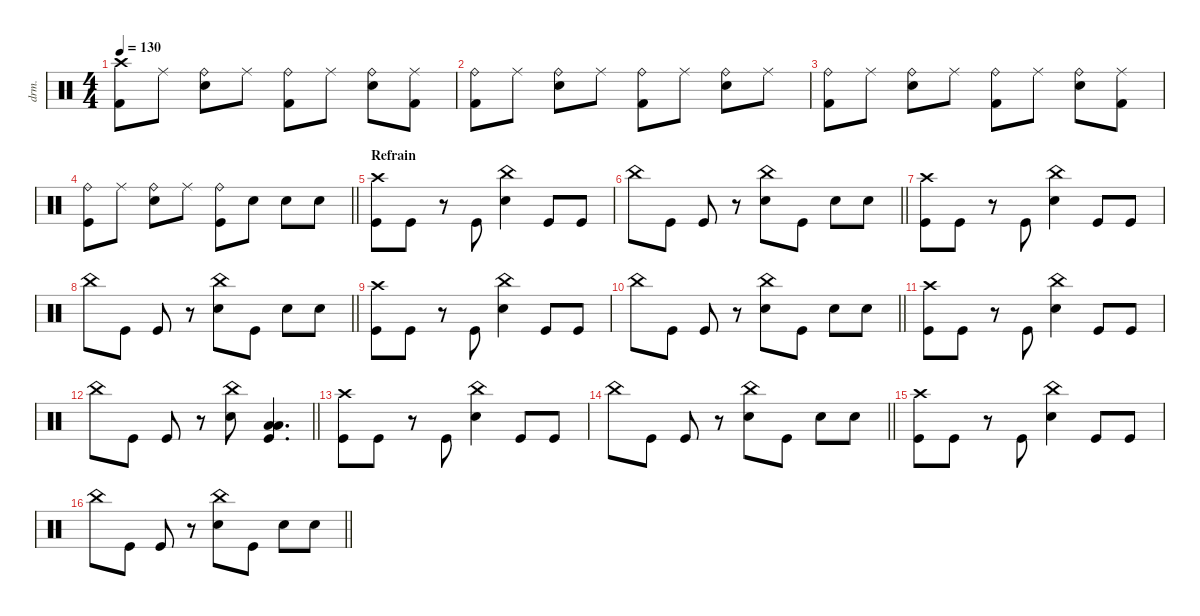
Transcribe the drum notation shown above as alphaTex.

\defaultSystemsLayout 4
\hideDynamics
\bracketExtendMode nobrackets
\track ("Manouche" "drm.") {solo instrument percussion}
\staff {score}
\articulation defaults
\ts (4 4)
\tempo 130
\clef neutral
\ks c
("Crash high (hit)" "Kick (hit) 2").8{dy f beam Down} "Ride (middle)".8{dy mf beam Down} ("Ride (bell)" "Snare (hit) 2").8{dy f beam Down} "Ride (middle)".8{dy mf beam Down} ("Ride (bell)" "Kick (hit) 2").8{dy f beam Down} "Ride (middle)".8{dy mf beam Down} ("Ride (bell)" "Snare (hit) 2").8{dy f beam Down} ("Ride (middle)" "Kick (hit) 2").8{dy mf beam Down} |
("Ride (bell)" "Kick (hit) 2").8{dy f beam Down} "Ride (middle)".8{dy mf beam Down} ("Ride (bell)" "Snare (hit) 2").8{dy f beam Down} "Ride (middle)".8{dy mf beam Down} ("Ride (bell)" "Kick (hit) 2").8{dy f beam Down} "Ride (middle)".8{dy mf beam Down} ("Ride (bell)" "Snare (hit) 2").8{dy f beam Down} "Ride (middle)".8{dy mf beam Down} |
("Ride (bell)" "Kick (hit) 2").8{dy f beam Down} "Ride (middle)".8{dy mf beam Down} ("Ride (bell)" "Snare (hit) 2").8{dy f beam Down} "Ride (middle)".8{dy mf beam Down} ("Ride (bell)" "Kick (hit) 2").8{dy f beam Down} "Ride (middle)".8{dy mf beam Down} ("Ride (bell)" "Snare (hit) 2").8{dy f beam Down} ("Ride (middle)" "Kick (hit) 2").8{dy mf beam Down} |
\barLineRight lightlight
("Ride (bell)" "Kick (hit)").8{dy f beam Down} "Ride (middle)".8{dy mf beam Down} ("Ride (bell)" "Snare (hit) 2").8{dy f beam Down} "Ride (middle)".8{dy mf beam Down} ("Ride (bell)" "Kick (hit)").8{dy f beam Down} "Snare (hit) 2".8{beam Down} "Snare (hit) 2".8{beam Down} "Snare (hit) 2".8{beam Down} |
\section ("" "Refrain")
("Crash high (hit)" "Kick (hit)").8{beam Down} "Kick (hit)".8{beam Down} r.8{beam Down} "Kick (hit)".8{beam Up} ("China (hit)" "Snare (hit) 2").4{beam Down} "Kick (hit)".8{beam Up} "Kick (hit)".8{beam Up} |
\barLineRight lightlight "China (hit)".8{beam Down} "Kick (hit)".8{beam Down} "Kick (hit)".8{beam Up}
r.8{beam Down} ("China (hit)" "Snare (hit) 2").8{beam Down} "Kick (hit)".8{beam Down} "Snare (hit) 2".8{beam Down} "Snare (hit) 2".8{beam Down} |
("Crash high (hit)" "Kick (hit)").8{beam Down} "Kick (hit)".8{beam Down} r.8{beam Down} "Kick (hit)".8{beam Up} ("China (hit)" "Snare (hit) 2").4{beam Down} "Kick (hit)".8{beam Up} "Kick (hit)".8{beam Up} |
\barLineRight lightlight "China (hit)".8{beam Down} "Kick (hit)".8{beam Down} "Kick (hit)".8{beam Up}
r.8{beam Down} ("China (hit)" "Snare (hit) 2").8{beam Down} "Kick (hit)".8{beam Down} "Snare (hit) 2".8{beam Down} "Snare (hit) 2".8{beam Down} |
("Crash high (hit)" "Kick (hit)").8{beam Down} "Kick (hit)".8{beam Down} r.8{beam Down} "Kick (hit)".8{beam Up} ("China (hit)" "Snare (hit) 2").4{beam Down} "Kick (hit)".8{beam Up} "Kick (hit)".8{beam Up} |
\barLineRight lightlight "China (hit)".8{beam Down} "Kick (hit)".8{beam Down} "Kick (hit)".8{beam Up}
r.8{beam Down} ("China (hit)" "Snare (hit) 2").8{beam Down} "Kick (hit)".8{beam Down} "Snare (hit) 2".8{beam Down} "Snare (hit) 2".8{beam Down} |
("Crash high (hit)" "Kick (hit)").8{beam Down} "Kick (hit)".8{beam Down} r.8{beam Down} "Kick (hit)".8{beam Up} ("China (hit)" "Snare (hit) 2").4{beam Down} "Kick (hit)".8{beam Up} "Kick (hit)".8{beam Up} |
\barLineRight lightlight "China (hit)".8{beam Down} "Kick (hit)".8{beam Down} "Kick (hit)".8{beam Up}
r.8{beam Down} ("China (hit)" "Snare (hit) 2").8{beam Down} ("Low Tom (hit)" "Kick (hit)" "Low Floor Tom (hit)").4{d dy ff beam Up} |
("Crash high (hit)" "Kick (hit)").8{dy f beam Down} "Kick (hit)".8{beam Down} r.8{beam Down} "Kick (hit)".8{beam Up} ("China (hit)" "Snare (hit) 2").4{beam Down} "Kick (hit)".8{beam Up} "Kick (hit)".8{beam Up} |
\barLineRight lightlight "China (hit)".8{beam Down} "Kick (hit)".8{beam Down} "Kick (hit)".8{beam Up}
r.8{beam Down} ("China (hit)" "Snare (hit) 2").8{beam Down} "Kick (hit)".8{beam Down} "Snare (hit) 2".8{beam Down} "Snare (hit) 2".8{beam Down} |
("Crash high (hit)" "Kick (hit)").8{beam Down} "Kick (hit)".8{beam Down} r.8{beam Down} "Kick (hit)".8{beam Up} ("China (hit)" "Snare (hit) 2").4{beam Down} "Kick (hit)".8{beam Up} "Kick (hit)".8{beam Up} |
\barLineRight lightlight "China (hit)".8{beam Down} "Kick (hit)".8{beam Down} "Kick (hit)".8{beam Up}
r.8{beam Down} ("China (hit)" "Snare (hit) 2").8{beam Down} "Kick (hit)".8{beam Down} "Snare (hit) 2".8{beam Down} "Snare (hit) 2".8{beam Down}
